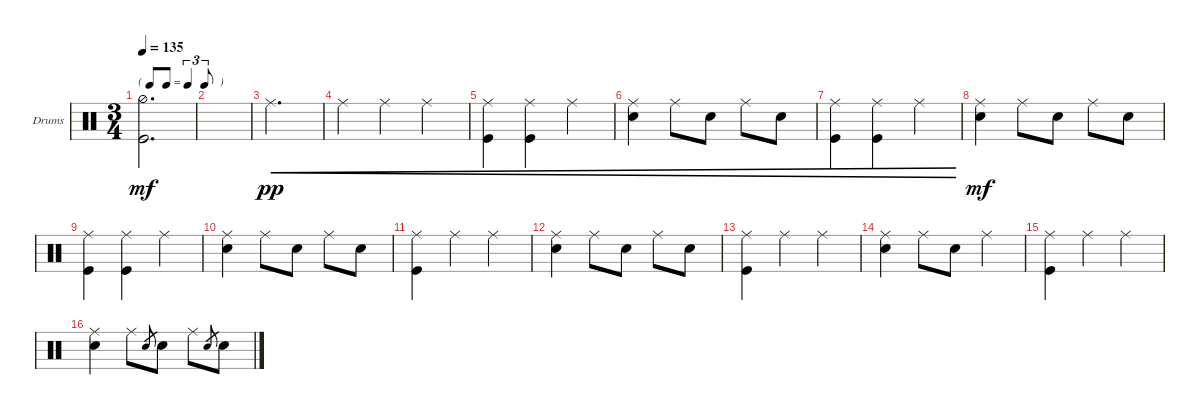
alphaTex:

\defaultSystemsLayout 4
\bracketExtendMode groupsimilarinstruments
\firstSystemTrackNameOrientation horizontal
\otherSystemsTrackNameOrientation horizontal
\track ("Drums" "Drums") {instrument percussion}
\staff {score}
\articulation defaults
\ts (3 4)
\tf triplet8th
\tempo 135
\clef neutral
\ks c
("Hi-Hat (half)" "Kick (hit)").2{d dy mf} |
|
"Ride (middle)".2{d cre dy pp} |
"Ride (middle)".4{cre} "Ride (middle)".4{cre} "Ride (middle)".4{cre} |
("Ride (middle)" "Kick (hit)").4{cre} ("Ride (middle)" "Kick (hit)").4{cre} "Ride (middle)".4{cre} |
("Snare (hit) 2" "Ride (middle)").4{cre} "Ride (middle)".8{cre} "Snare (hit) 2".8{cre} "Ride (middle)".8{cre} "Snare (hit) 2".8{cre} |
("Ride (middle)" "Kick (hit)").4{cre} ("Ride (middle)" "Kick (hit)").4{cre} "Ride (middle)".4{cre} |
("Snare (hit) 2" "Ride (middle)").4{dy mf} "Ride (middle)".8 "Snare (hit) 2".8 "Ride (middle)".8 "Snare (hit) 2".8 |
("Ride (middle)" "Kick (hit)").4 ("Ride (middle)" "Kick (hit)").4 "Ride (middle)".4 |
("Snare (hit) 2" "Ride (middle)").4 "Ride (middle)".8 "Snare (hit) 2".8 "Ride (middle)".8 "Snare (hit) 2".8 |
("Ride (middle)" "Kick (hit)").4 "Ride (middle)".4 "Ride (middle)".4 |
("Snare (hit) 2" "Ride (middle)").4 "Ride (middle)".8 "Snare (hit) 2".8 "Ride (middle)".8 "Snare (hit) 2".8 |
("Ride (middle)" "Kick (hit)").4 "Ride (middle)".4 "Ride (middle)".4 |
("Snare (hit) 2" "Ride (middle)").4 "Ride (middle)".8 "Snare (hit) 2".8 "Ride (middle)".4 |
("Ride (middle)" "Kick (hit)").4 "Ride (middle)".4 "Ride (middle)".4 |
("Snare (hit) 2" "Ride (middle)").4 "Ride (middle)".8 "Snare (hit) 2".8{gr} "Snare (hit) 2".8 "Ride (middle)".8 "Snare (hit) 2".8{gr} "Snare (hit) 2".8
